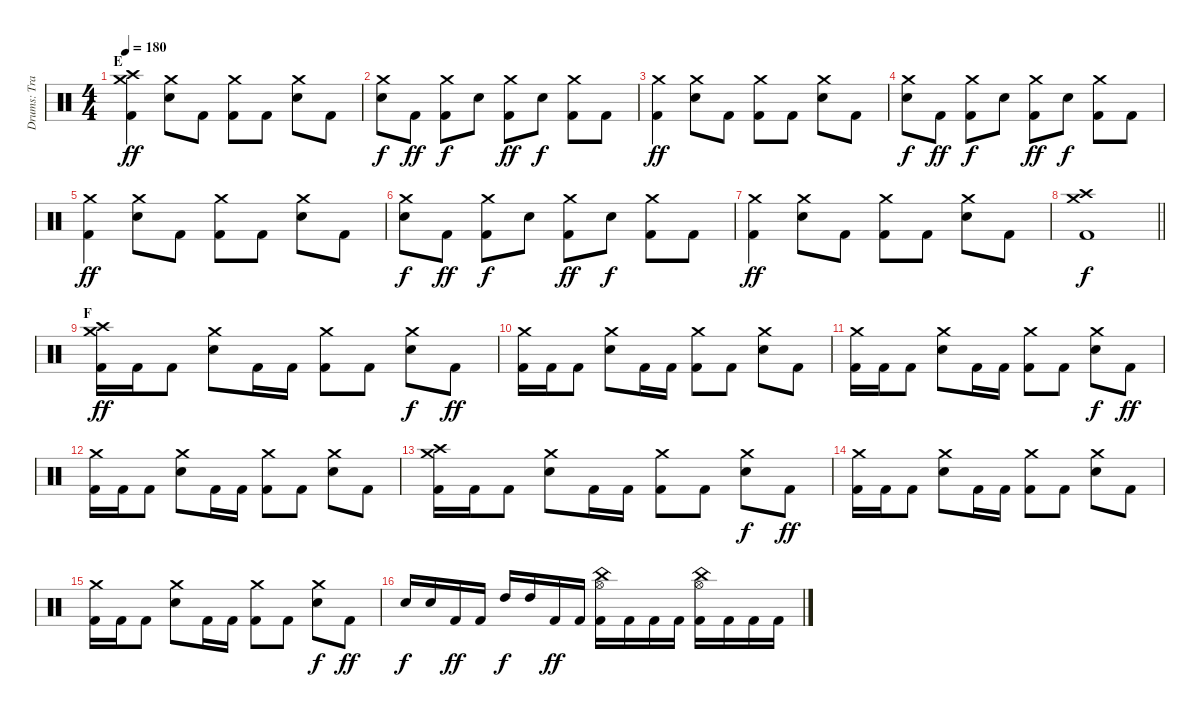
\track ("Drums: Travis Clarke" "Drums: Tra") {instrument percussion}
\staff {score}
\articulation defaults
\ts (4 4)
\section ("" "E")
\tempo 180
\clef neutral
\ks c
("Kick (hit) 2" "Crash high (hit)" "Crash medium (hit)").4{dy ff} ("Snare (hit) 2" "Crash medium (hit)").8 "Kick (hit) 2".8 ("Kick (hit) 2" "Crash medium (hit)").8 "Kick (hit) 2".8 ("Snare (hit) 2" "Crash medium (hit)").8 "Kick (hit) 2".8 |
("Snare (hit) 2" "Crash medium (hit)").8{dy f} "Kick (hit) 2".8{dy ff} ("Kick (hit) 2" "Crash medium (hit)").8{dy f} "Snare (hit) 2".8 ("Kick (hit) 2" "Crash medium (hit)").8{dy ff} "Snare (hit) 2".8{dy f} ("Kick (hit) 2" "Crash medium (hit)").8 "Kick (hit) 2".8 |
("Kick (hit) 2" "Crash medium (hit)").4{dy ff} ("Snare (hit) 2" "Crash medium (hit)").8 "Kick (hit) 2".8 ("Kick (hit) 2" "Crash medium (hit)").8 "Kick (hit) 2".8 ("Snare (hit) 2" "Crash medium (hit)").8 "Kick (hit) 2".8 |
("Snare (hit) 2" "Crash medium (hit)").8{dy f} "Kick (hit) 2".8{dy ff} ("Kick (hit) 2" "Crash medium (hit)").8{dy f} "Snare (hit) 2".8 ("Kick (hit) 2" "Crash medium (hit)").8{dy ff} "Snare (hit) 2".8{dy f} ("Kick (hit) 2" "Crash medium (hit)").8 "Kick (hit) 2".8 |
("Kick (hit) 2" "Crash medium (hit)").4{dy ff} ("Snare (hit) 2" "Crash medium (hit)").8 "Kick (hit) 2".8 ("Kick (hit) 2" "Crash medium (hit)").8 "Kick (hit) 2".8 ("Snare (hit) 2" "Crash medium (hit)").8 "Kick (hit) 2".8 |
("Snare (hit) 2" "Crash medium (hit)").8{dy f} "Kick (hit) 2".8{dy ff} ("Kick (hit) 2" "Crash medium (hit)").8{dy f} "Snare (hit) 2".8 ("Kick (hit) 2" "Crash medium (hit)").8{dy ff} "Snare (hit) 2".8{dy f} ("Kick (hit) 2" "Crash medium (hit)").8 "Kick (hit) 2".8 |
("Kick (hit) 2" "Crash medium (hit)").4{dy ff} ("Snare (hit) 2" "Crash medium (hit)").8 "Kick (hit) 2".8 ("Kick (hit) 2" "Crash medium (hit)").8 "Kick (hit) 2".8 ("Snare (hit) 2" "Crash medium (hit)").8 "Kick (hit) 2".8 |
\barLineRight lightlight
("Kick (hit) 2" "Crash high (hit)" "Crash medium (hit)").1{dy f} |
\section ("" "F")
("Kick (hit) 2" "Crash high (hit)" "Crash medium (hit)").16{dy ff} "Kick (hit) 2".16 "Kick (hit) 2".8 ("Snare (hit) 2" "Crash medium (hit)").8 "Kick (hit) 2".16 "Kick (hit) 2".16 ("Kick (hit) 2" "Crash medium (hit)").8 "Kick (hit) 2".8 ("Snare (hit) 2" "Crash medium (hit)").8{dy f} "Kick (hit) 2".8{dy ff} |
("Kick (hit) 2" "Crash medium (hit)").16 "Kick (hit) 2".16 "Kick (hit) 2".8 ("Snare (hit) 2" "Crash medium (hit)").8 "Kick (hit) 2".16 "Kick (hit) 2".16 ("Kick (hit) 2" "Crash medium (hit)").8 "Kick (hit) 2".8 ("Snare (hit) 2" "Crash medium (hit)").8 "Kick (hit) 2".8 |
("Kick (hit) 2" "Crash medium (hit)").16 "Kick (hit) 2".16 "Kick (hit) 2".8 ("Snare (hit) 2" "Crash medium (hit)").8 "Kick (hit) 2".16 "Kick (hit) 2".16 ("Kick (hit) 2" "Crash medium (hit)").8 "Kick (hit) 2".8 ("Snare (hit) 2" "Crash medium (hit)").8{dy f} "Kick (hit) 2".8{dy ff} |
("Kick (hit) 2" "Crash medium (hit)").16 "Kick (hit) 2".16 "Kick (hit) 2".8 ("Snare (hit) 2" "Crash medium (hit)").8 "Kick (hit) 2".16 "Kick (hit) 2".16 ("Kick (hit) 2" "Crash medium (hit)").8 "Kick (hit) 2".8 ("Snare (hit) 2" "Crash medium (hit)").8 "Kick (hit) 2".8 |
("Kick (hit) 2" "Crash high (hit)" "Crash medium (hit)").16 "Kick (hit) 2".16 "Kick (hit) 2".8 ("Snare (hit) 2" "Crash medium (hit)").8 "Kick (hit) 2".16 "Kick (hit) 2".16 ("Kick (hit) 2" "Crash medium (hit)").8 "Kick (hit) 2".8 ("Snare (hit) 2" "Crash medium (hit)").8{dy f} "Kick (hit) 2".8{dy ff} |
("Kick (hit) 2" "Crash medium (hit)").16 "Kick (hit) 2".16 "Kick (hit) 2".8 ("Snare (hit) 2" "Crash medium (hit)").8 "Kick (hit) 2".16 "Kick (hit) 2".16 ("Kick (hit) 2" "Crash medium (hit)").8 "Kick (hit) 2".8 ("Snare (hit) 2" "Crash medium (hit)").8 "Kick (hit) 2".8 |
("Kick (hit) 2" "Crash medium (hit)").16 "Kick (hit) 2".16 "Kick (hit) 2".8 ("Snare (hit) 2" "Crash medium (hit)").8 "Kick (hit) 2".16 "Kick (hit) 2".16 ("Kick (hit) 2" "Crash medium (hit)").8 "Kick (hit) 2".8 ("Snare (hit) 2" "Crash medium (hit)").8{dy f} "Kick (hit) 2".8{dy ff} |
"Snare (hit) 2".16{dy f} "Snare (hit) 2".16 "Kick (hit) 2".16{dy ff} "Kick (hit) 2".16 "High Tom (hit)".16{dy f} "High Tom (hit)".16 "Kick (hit) 2".16{dy ff} "Kick (hit) 2".16 ("Kick (hit) 2" "Hi-Hat (open)" "China (hit)").16 "Kick (hit) 2".16 "Kick (hit) 2".16 "Kick (hit) 2".16 ("Kick (hit) 2" "Hi-Hat (open)" "China (hit)").16 "Kick (hit) 2".16 "Kick (hit) 2".16 "Kick (hit) 2".16
